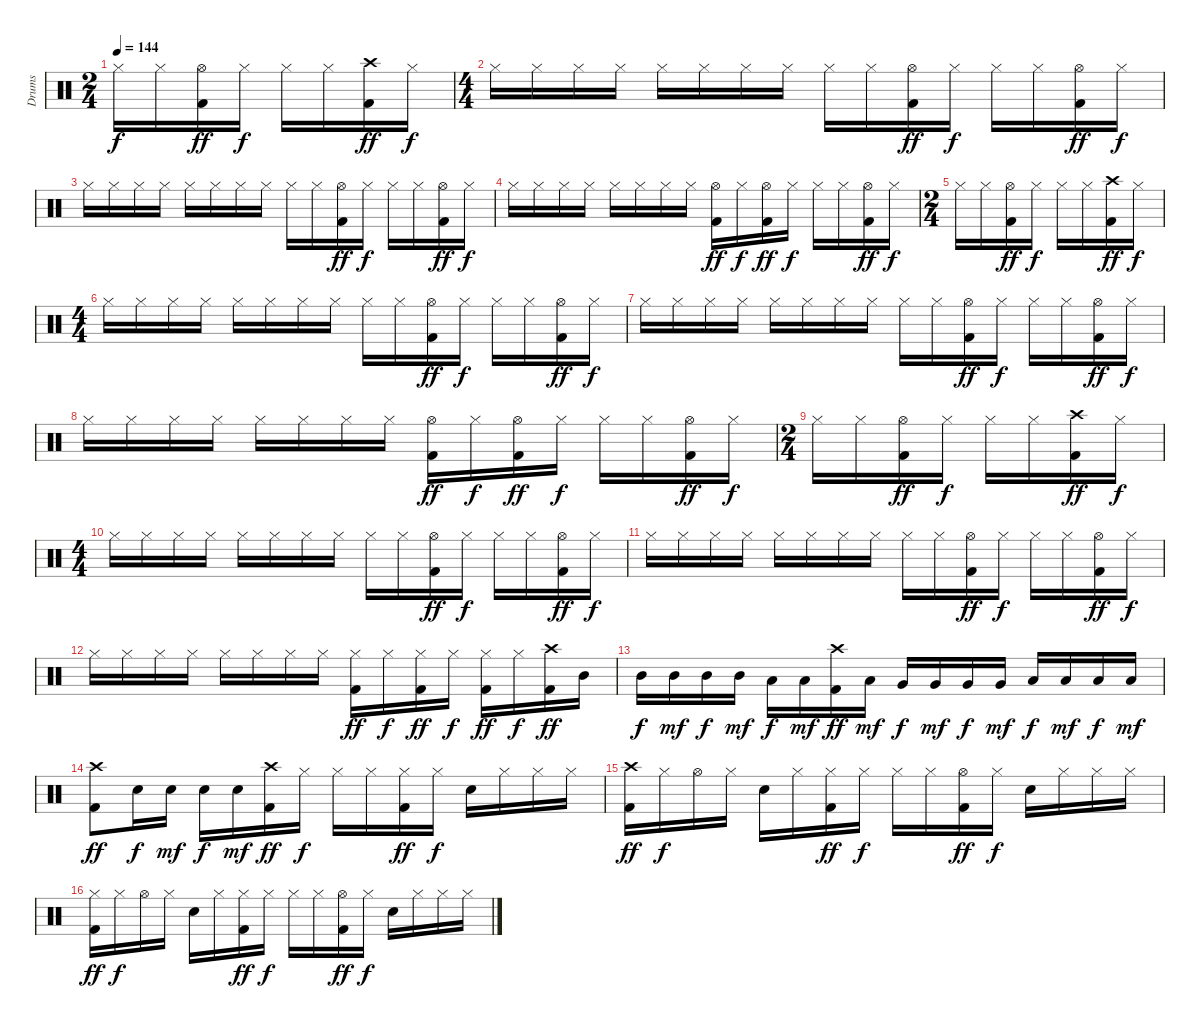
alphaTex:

\track ("Drums" "Drums") {instrument percussion}
\staff {score}
\articulation defaults
\ts (2 4)
\tempo 144
\clef neutral
\ks c "Hi-Hat (closed)".16{dy f} "Hi-Hat (closed)".16
("Hi-Hat (open)" "Kick (hit) 2").16{dy ff} "Hi-Hat (closed)".16{dy f} "Hi-Hat (closed)".16 "Hi-Hat (closed)".16 ("Crash high (hit)" "Kick (hit) 2").16{dy ff} "Hi-Hat (closed)".16{dy f} |
\ts (4 4)
"Hi-Hat (closed)".16 "Hi-Hat (closed)".16 "Hi-Hat (closed)".16 "Hi-Hat (closed)".16 "Hi-Hat (closed)".16 "Hi-Hat (closed)".16 "Hi-Hat (closed)".16 "Hi-Hat (closed)".16 "Hi-Hat (closed)".16 "Hi-Hat (closed)".16 ("Hi-Hat (open)" "Kick (hit) 2").16{dy ff} "Hi-Hat (closed)".16{dy f} "Hi-Hat (closed)".16 "Hi-Hat (closed)".16 ("Hi-Hat (open)" "Kick (hit) 2").16{dy ff} "Hi-Hat (closed)".16{dy f} |
"Hi-Hat (closed)".16 "Hi-Hat (closed)".16 "Hi-Hat (closed)".16 "Hi-Hat (closed)".16 "Hi-Hat (closed)".16 "Hi-Hat (closed)".16 "Hi-Hat (closed)".16 "Hi-Hat (closed)".16 "Hi-Hat (closed)".16 "Hi-Hat (closed)".16 ("Hi-Hat (open)" "Kick (hit) 2").16{dy ff} "Hi-Hat (closed)".16{dy f} "Hi-Hat (closed)".16 "Hi-Hat (closed)".16 ("Hi-Hat (open)" "Kick (hit) 2").16{dy ff} "Hi-Hat (closed)".16{dy f} |
"Hi-Hat (closed)".16 "Hi-Hat (closed)".16 "Hi-Hat (closed)".16 "Hi-Hat (closed)".16 "Hi-Hat (closed)".16 "Hi-Hat (closed)".16 "Hi-Hat (closed)".16 "Hi-Hat (closed)".16 ("Hi-Hat (open)" "Kick (hit) 2").16{dy ff} "Hi-Hat (closed)".16{dy f} ("Hi-Hat (open)" "Kick (hit) 2").16{dy ff} "Hi-Hat (closed)".16{dy f} "Hi-Hat (closed)".16 "Hi-Hat (closed)".16 ("Hi-Hat (open)" "Kick (hit) 2").16{dy ff} "Hi-Hat (closed)".16{dy f} |
\ts (2 4)
"Hi-Hat (closed)".16 "Hi-Hat (closed)".16 ("Hi-Hat (open)" "Kick (hit) 2").16{dy ff} "Hi-Hat (closed)".16{dy f} "Hi-Hat (closed)".16 "Hi-Hat (closed)".16 ("Crash high (hit)" "Kick (hit) 2").16{dy ff} "Hi-Hat (closed)".16{dy f} |
\ts (4 4)
"Hi-Hat (closed)".16 "Hi-Hat (closed)".16 "Hi-Hat (closed)".16 "Hi-Hat (closed)".16 "Hi-Hat (closed)".16 "Hi-Hat (closed)".16 "Hi-Hat (closed)".16 "Hi-Hat (closed)".16 "Hi-Hat (closed)".16 "Hi-Hat (closed)".16 ("Hi-Hat (open)" "Kick (hit) 2").16{dy ff} "Hi-Hat (closed)".16{dy f} "Hi-Hat (closed)".16 "Hi-Hat (closed)".16 ("Hi-Hat (open)" "Kick (hit) 2").16{dy ff} "Hi-Hat (closed)".16{dy f} |
"Hi-Hat (closed)".16 "Hi-Hat (closed)".16 "Hi-Hat (closed)".16 "Hi-Hat (closed)".16 "Hi-Hat (closed)".16 "Hi-Hat (closed)".16 "Hi-Hat (closed)".16 "Hi-Hat (closed)".16 "Hi-Hat (closed)".16 "Hi-Hat (closed)".16 ("Hi-Hat (open)" "Kick (hit) 2").16{dy ff} "Hi-Hat (closed)".16{dy f} "Hi-Hat (closed)".16 "Hi-Hat (closed)".16 ("Hi-Hat (open)" "Kick (hit) 2").16{dy ff} "Hi-Hat (closed)".16{dy f} |
"Hi-Hat (closed)".16 "Hi-Hat (closed)".16 "Hi-Hat (closed)".16 "Hi-Hat (closed)".16 "Hi-Hat (closed)".16 "Hi-Hat (closed)".16 "Hi-Hat (closed)".16 "Hi-Hat (closed)".16 ("Hi-Hat (open)" "Kick (hit) 2").16{dy ff} "Hi-Hat (closed)".16{dy f} ("Hi-Hat (open)" "Kick (hit) 2").16{dy ff} "Hi-Hat (closed)".16{dy f} "Hi-Hat (closed)".16 "Hi-Hat (closed)".16 ("Hi-Hat (open)" "Kick (hit) 2").16{dy ff} "Hi-Hat (closed)".16{dy f} |
\ts (2 4)
"Hi-Hat (closed)".16 "Hi-Hat (closed)".16 ("Hi-Hat (open)" "Kick (hit) 2").16{dy ff} "Hi-Hat (closed)".16{dy f} "Hi-Hat (closed)".16 "Hi-Hat (closed)".16 ("Crash high (hit)" "Kick (hit) 2").16{dy ff} "Hi-Hat (closed)".16{dy f} |
\ts (4 4)
"Hi-Hat (closed)".16 "Hi-Hat (closed)".16 "Hi-Hat (closed)".16 "Hi-Hat (closed)".16 "Hi-Hat (closed)".16 "Hi-Hat (closed)".16 "Hi-Hat (closed)".16 "Hi-Hat (closed)".16 "Hi-Hat (closed)".16 "Hi-Hat (closed)".16 ("Hi-Hat (open)" "Kick (hit) 2").16{dy ff} "Hi-Hat (closed)".16{dy f} "Hi-Hat (closed)".16 "Hi-Hat (closed)".16 ("Hi-Hat (open)" "Kick (hit) 2").16{dy ff} "Hi-Hat (closed)".16{dy f} |
"Hi-Hat (closed)".16 "Hi-Hat (closed)".16 "Hi-Hat (closed)".16 "Hi-Hat (closed)".16 "Hi-Hat (closed)".16 "Hi-Hat (closed)".16 "Hi-Hat (closed)".16 "Hi-Hat (closed)".16 "Hi-Hat (closed)".16 "Hi-Hat (closed)".16 ("Hi-Hat (open)" "Kick (hit) 2").16{dy ff} "Hi-Hat (closed)".16{dy f} "Hi-Hat (closed)".16 "Hi-Hat (closed)".16 ("Hi-Hat (open)" "Kick (hit) 2").16{dy ff} "Hi-Hat (closed)".16{dy f} |
"Hi-Hat (closed)".16 "Hi-Hat (closed)".16 "Hi-Hat (closed)".16 "Hi-Hat (closed)".16 "Hi-Hat (closed)".16 "Hi-Hat (closed)".16 "Hi-Hat (closed)".16 "Hi-Hat (closed)".16 ("Hi-Hat (closed)" "Kick (hit) 2").16{dy ff} "Hi-Hat (closed)".16{dy f} ("Hi-Hat (closed)" "Kick (hit) 2").16{dy ff} "Hi-Hat (closed)".16{dy f} ("Hi-Hat (closed)" "Kick (hit) 2").16{dy ff} "Hi-Hat (closed)".16{dy f} ("Crash high (hit)" "Kick (hit) 2").16{dy ff} "Mid Tom (hit)".16 |
"Mid Tom (hit)".16{dy f} "Mid Tom (hit)".16{dy mf} "Mid Tom (hit)".16{dy f} "Mid Tom (hit)".16{dy mf} "Low Tom (hit)".16{dy f} "Low Tom (hit)".16{dy mf} ("Crash high (hit)" "Kick (hit) 2").16{dy ff} "Low Tom (hit)".16{dy mf} "Very Low Tom (hit)".16{dy f} "Very Low Tom (hit)".16{dy mf} "Very Low Tom (hit)".16{dy f} "Very Low Tom (hit)".16{dy mf} "Low Floor Tom (hit)".16{dy f} "Low Floor Tom (hit)".16{dy mf} "Low Floor Tom (hit)".16{dy f} "Low Floor Tom (hit)".16{dy mf} |
("Crash high (hit)" "Kick (hit) 2").8{dy ff} "Snare (hit) 2".16{dy f} "Snare (hit) 2".16{dy mf} "Snare (hit) 2".16{dy f} "Snare (hit) 2".16{dy mf} ("Crash high (hit)" "Kick (hit) 2").16{dy ff} "Hi-Hat (closed)".16{dy f} "Hi-Hat (closed)".16 "Hi-Hat (closed)".16 ("Hi-Hat (closed)" "Kick (hit) 2").16{dy ff} "Hi-Hat (closed)".16{dy f} "Snare (hit) 2".16 "Hi-Hat (closed)".16 "Hi-Hat (closed)".16 "Hi-Hat (closed)".16 |
("Crash high (hit)" "Kick (hit) 2").16{dy ff} "Hi-Hat (closed)".16{dy f} "Hi-Hat (open)".16 "Hi-Hat (closed)".16 "Snare (hit) 2".16 "Hi-Hat (closed)".16 ("Hi-Hat (closed)" "Kick (hit) 2").16{dy ff} "Hi-Hat (closed)".16{dy f} "Hi-Hat (closed)".16 "Hi-Hat (closed)".16 ("Hi-Hat (open)" "Kick (hit) 2").16{dy ff} "Hi-Hat (closed)".16{dy f} "Snare (hit) 2".16 "Hi-Hat (closed)".16 "Hi-Hat (closed)".16 "Hi-Hat (closed)".16 |
("Hi-Hat (closed)" "Kick (hit) 2").16{dy ff} "Hi-Hat (closed)".16{dy f} "Hi-Hat (open)".16 "Hi-Hat (closed)".16 "Snare (hit) 2".16 "Hi-Hat (closed)".16 ("Hi-Hat (closed)" "Kick (hit) 2").16{dy ff} "Hi-Hat (closed)".16{dy f} "Hi-Hat (closed)".16 "Hi-Hat (closed)".16 ("Hi-Hat (open)" "Kick (hit) 2").16{dy ff} "Hi-Hat (closed)".16{dy f} "Snare (hit) 2".16 "Hi-Hat (closed)".16 "Hi-Hat (closed)".16 "Hi-Hat (closed)".16
